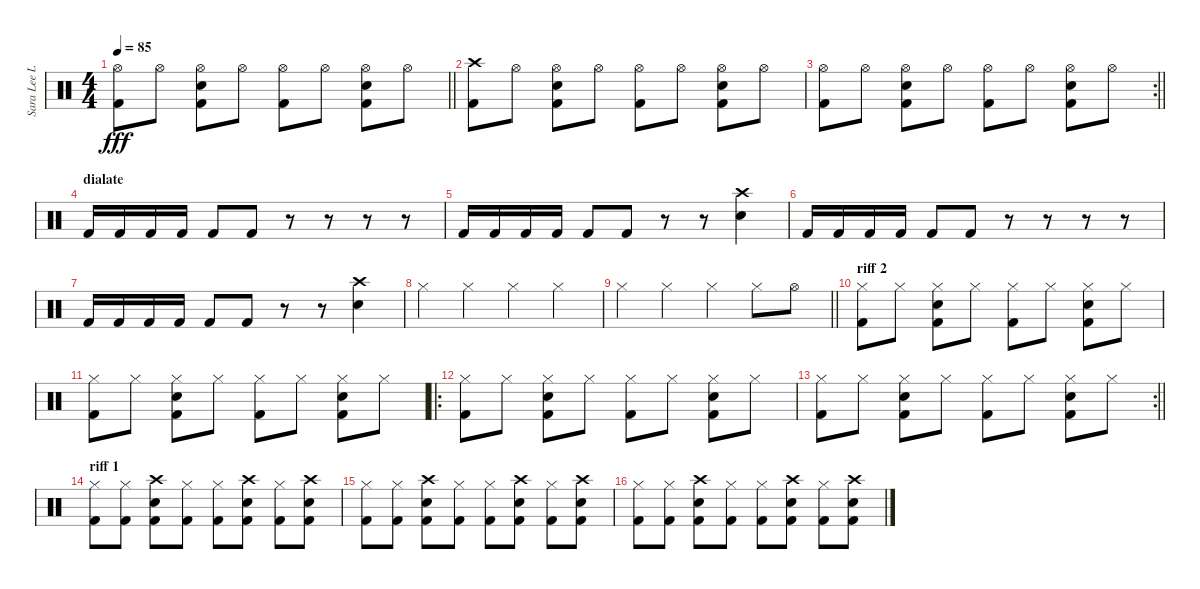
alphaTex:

\track ("Sara Lee Lucas" "Sara Lee L") {instrument percussion}
\staff {score}
\articulation defaults
\ts (4 4)
\tempo 85
\clef neutral
\barLineRight lightlight
\ks c
("Hi-Hat (open)" "Kick (hit) 2").8{dy fff} "Hi-Hat (open)".8 ("Hi-Hat (open)" "Snare (hit) 2" "Kick (hit) 2").8 "Hi-Hat (open)".8 ("Hi-Hat (open)" "Kick (hit) 2").8 "Hi-Hat (open)".8 ("Hi-Hat (open)" "Snare (hit) 2" "Kick (hit) 2").8 "Hi-Hat (open)".8 |
("Crash high (hit)" "Kick (hit) 2").8 "Hi-Hat (open)".8 ("Hi-Hat (open)" "Snare (hit) 2" "Kick (hit) 2").8 "Hi-Hat (open)".8 ("Hi-Hat (open)" "Kick (hit) 2").8 "Hi-Hat (open)".8 ("Hi-Hat (open)" "Snare (hit) 2" "Kick (hit) 2").8 "Hi-Hat (open)".8 |
\rc 2
\barLineRight lightlight
("Hi-Hat (open)" "Kick (hit) 2").8 "Hi-Hat (open)".8 ("Hi-Hat (open)" "Snare (hit) 2" "Kick (hit) 2").8 "Hi-Hat (open)".8 ("Hi-Hat (open)" "Kick (hit) 2").8 "Hi-Hat (open)".8 ("Hi-Hat (open)" "Snare (hit) 2" "Kick (hit) 2").8 "Hi-Hat (open)".8 |
\section ("" "dialate")
"Kick (hit) 2".16 "Kick (hit) 2".16 "Kick (hit) 2".16 "Kick (hit) 2".16 "Kick (hit) 2".8 "Kick (hit) 2".8 r.8 r.8 r.8 r.8 |
"Kick (hit) 2".16 "Kick (hit) 2".16 "Kick (hit) 2".16 "Kick (hit) 2".16 "Kick (hit) 2".8 "Kick (hit) 2".8 r.8 r.8 ("Crash high (hit)" "Snare (hit) 2").4 |
"Kick (hit) 2".16 "Kick (hit) 2".16 "Kick (hit) 2".16 "Kick (hit) 2".16 "Kick (hit) 2".8 "Kick (hit) 2".8 r.8 r.8 r.8 r.8 |
"Kick (hit) 2".16 "Kick (hit) 2".16 "Kick (hit) 2".16 "Kick (hit) 2".16 "Kick (hit) 2".8 "Kick (hit) 2".8 r.8 r.8 ("Crash high (hit)" "Snare (hit) 2").4 |
"Hi-Hat (closed)".4 "Hi-Hat (closed)".4 "Hi-Hat (closed)".4 "Hi-Hat (closed)".4 |
\barLineRight lightlight "Hi-Hat (closed)".4 "Hi-Hat (closed)".4 "Hi-Hat (closed)".4 "Hi-Hat (closed)".8 "Hi-Hat (open)".8
|
\section ("" "riff 2")
("Hi-Hat (closed)" "Kick (hit) 2").8 "Hi-Hat (closed)".8 ("Hi-Hat (closed)" "Snare (hit) 2" "Kick (hit) 2").8 "Hi-Hat (closed)".8 ("Hi-Hat (closed)" "Kick (hit) 2").8 "Hi-Hat (closed)".8 ("Hi-Hat (closed)" "Snare (hit) 2" "Kick (hit) 2").8 "Hi-Hat (closed)".8 |
("Hi-Hat (closed)" "Kick (hit) 2").8 "Hi-Hat (closed)".8 ("Hi-Hat (closed)" "Snare (hit) 2" "Kick (hit) 2").8 "Hi-Hat (closed)".8 ("Hi-Hat (closed)" "Kick (hit) 2").8 "Hi-Hat (closed)".8 ("Hi-Hat (closed)" "Snare (hit) 2" "Kick (hit) 2").8 "Hi-Hat (closed)".8 |
\ro
("Hi-Hat (closed)" "Kick (hit) 2").8 "Hi-Hat (closed)".8 ("Hi-Hat (closed)" "Snare (hit) 2" "Kick (hit) 2").8 "Hi-Hat (closed)".8 ("Hi-Hat (closed)" "Kick (hit) 2").8 "Hi-Hat (closed)".8 ("Hi-Hat (closed)" "Snare (hit) 2" "Kick (hit) 2").8 "Hi-Hat (closed)".8 |
\rc 2
\barLineRight lightlight
("Hi-Hat (closed)" "Kick (hit) 2").8 "Hi-Hat (closed)".8 ("Hi-Hat (closed)" "Snare (hit) 2" "Kick (hit) 2").8 "Hi-Hat (closed)".8 ("Hi-Hat (closed)" "Kick (hit) 2").8 "Hi-Hat (closed)".8 ("Hi-Hat (closed)" "Snare (hit) 2" "Kick (hit) 2").8 "Hi-Hat (closed)".8 |
\section ("" "riff 1")
("Hi-Hat (closed)" "Kick (hit) 2").8 ("Hi-Hat (closed)" "Kick (hit) 2").8 ("Crash high (hit)" "Snare (hit) 2" "Kick (hit) 2").8 ("Hi-Hat (closed)" "Kick (hit) 2").8 ("Hi-Hat (closed)" "Kick (hit) 2").8 ("Crash high (hit)" "Snare (hit) 2" "Kick (hit) 2").8 ("Hi-Hat (closed)" "Kick (hit) 2").8 ("Crash high (hit)" "Snare (hit) 2" "Kick (hit) 2").8 |
("Hi-Hat (closed)" "Kick (hit) 2").8 ("Hi-Hat (closed)" "Kick (hit) 2").8 ("Crash high (hit)" "Snare (hit) 2" "Kick (hit) 2").8 ("Hi-Hat (closed)" "Kick (hit) 2").8 ("Hi-Hat (closed)" "Kick (hit) 2").8 ("Crash high (hit)" "Snare (hit) 2" "Kick (hit) 2").8 ("Hi-Hat (closed)" "Kick (hit) 2").8 ("Crash high (hit)" "Snare (hit) 2" "Kick (hit) 2").8 |
("Hi-Hat (closed)" "Kick (hit) 2").8 ("Hi-Hat (closed)" "Kick (hit) 2").8 ("Crash high (hit)" "Snare (hit) 2" "Kick (hit) 2").8 ("Hi-Hat (closed)" "Kick (hit) 2").8 ("Hi-Hat (closed)" "Kick (hit) 2").8 ("Crash high (hit)" "Snare (hit) 2" "Kick (hit) 2").8 ("Hi-Hat (closed)" "Kick (hit) 2").8 ("Crash high (hit)" "Snare (hit) 2" "Kick (hit) 2").8
